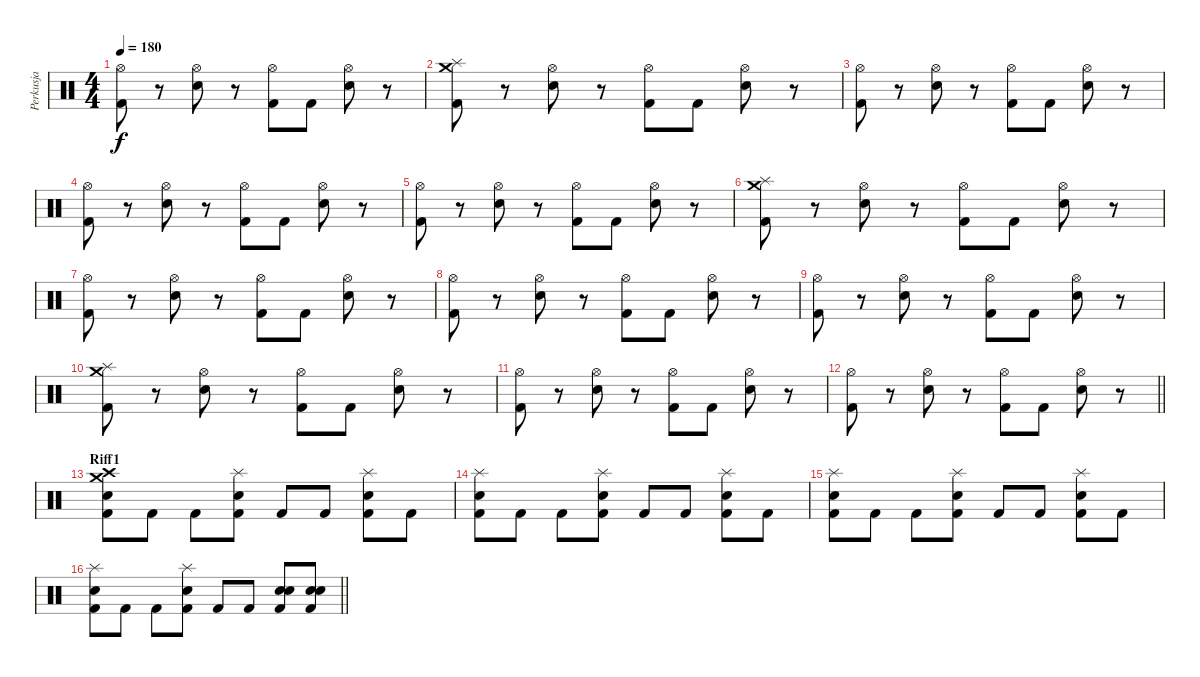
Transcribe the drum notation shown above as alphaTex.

\track ("Perkusja" "Perkusja") {instrument percussion}
\staff {score}
\articulation defaults
\ts (4 4)
\tempo 180
\clef neutral
\ks c
("Hi-Hat (open)" "Kick (hit) 2").8{dy f} r.8 ("Hi-Hat (open)" "Electric Snare (hit)").8 r.8 ("Hi-Hat (open)" "Kick (hit) 2").8 "Kick (hit) 2".8 ("Hi-Hat (open)" "Electric Snare (hit)").8 r.8 |
("Crash medium (hit)" "Splash (hit)" "Kick (hit) 2").8 r.8 ("Hi-Hat (open)" "Electric Snare (hit)").8 r.8 ("Hi-Hat (open)" "Kick (hit) 2").8 "Kick (hit) 2".8 ("Hi-Hat (open)" "Electric Snare (hit)").8 r.8 |
("Hi-Hat (open)" "Kick (hit) 2").8 r.8 ("Hi-Hat (open)" "Electric Snare (hit)").8 r.8 ("Hi-Hat (open)" "Kick (hit) 2").8 "Kick (hit) 2".8 ("Hi-Hat (open)" "Electric Snare (hit)").8 r.8 |
("Hi-Hat (open)" "Kick (hit) 2").8 r.8 ("Hi-Hat (open)" "Electric Snare (hit)").8 r.8 ("Hi-Hat (open)" "Kick (hit) 2").8 "Kick (hit) 2".8 ("Hi-Hat (open)" "Electric Snare (hit)").8 r.8 |
("Hi-Hat (open)" "Kick (hit) 2").8 r.8 ("Hi-Hat (open)" "Electric Snare (hit)").8 r.8 ("Hi-Hat (open)" "Kick (hit) 2").8 "Kick (hit) 2".8 ("Hi-Hat (open)" "Electric Snare (hit)").8 r.8 |
("Crash medium (hit)" "Splash (hit)" "Kick (hit) 2").8 r.8 ("Hi-Hat (open)" "Electric Snare (hit)").8 r.8 ("Hi-Hat (open)" "Kick (hit) 2").8 "Kick (hit) 2".8 ("Hi-Hat (open)" "Electric Snare (hit)").8 r.8 |
("Hi-Hat (open)" "Kick (hit) 2").8 r.8 ("Hi-Hat (open)" "Electric Snare (hit)").8 r.8 ("Hi-Hat (open)" "Kick (hit) 2").8 "Kick (hit) 2".8 ("Hi-Hat (open)" "Electric Snare (hit)").8 r.8 |
("Hi-Hat (open)" "Kick (hit) 2").8 r.8 ("Hi-Hat (open)" "Electric Snare (hit)").8 r.8 ("Hi-Hat (open)" "Kick (hit) 2").8 "Kick (hit) 2".8 ("Hi-Hat (open)" "Electric Snare (hit)").8 r.8 |
("Hi-Hat (open)" "Kick (hit) 2").8 r.8 ("Hi-Hat (open)" "Electric Snare (hit)").8 r.8 ("Hi-Hat (open)" "Kick (hit) 2").8 "Kick (hit) 2".8 ("Hi-Hat (open)" "Electric Snare (hit)").8 r.8 |
("Crash medium (hit)" "Splash (hit)" "Kick (hit) 2").8 r.8 ("Hi-Hat (open)" "Electric Snare (hit)").8 r.8 ("Hi-Hat (open)" "Kick (hit) 2").8 "Kick (hit) 2".8 ("Hi-Hat (open)" "Electric Snare (hit)").8 r.8 |
("Hi-Hat (open)" "Kick (hit) 2").8 r.8 ("Hi-Hat (open)" "Electric Snare (hit)").8 r.8 ("Hi-Hat (open)" "Kick (hit) 2").8 "Kick (hit) 2".8 ("Hi-Hat (open)" "Electric Snare (hit)").8 r.8 |
\barLineRight lightlight
("Hi-Hat (open)" "Kick (hit) 2").8 r.8 ("Hi-Hat (open)" "Electric Snare (hit)").8 r.8 ("Hi-Hat (open)" "Kick (hit) 2").8 "Kick (hit) 2".8 ("Hi-Hat (open)" "Electric Snare (hit)").8 r.8 |
\section ("" "Riff1")
("Crash medium (hit)" "Crash high (hit)" "Electric Snare (hit)" "Kick (hit) 2").8 "Kick (hit) 2".8 "Kick (hit) 2".8 ("Splash (hit)" "Electric Snare (hit)" "Kick (hit) 2").8 "Kick (hit) 2".8 "Kick (hit) 2".8 ("Splash (hit)" "Electric Snare (hit)" "Kick (hit) 2").8 "Kick (hit) 2".8 |
("Splash (hit)" "Electric Snare (hit)" "Kick (hit) 2").8 "Kick (hit) 2".8 "Kick (hit) 2".8 ("Splash (hit)" "Electric Snare (hit)" "Kick (hit) 2").8 "Kick (hit) 2".8 "Kick (hit) 2".8 ("Splash (hit)" "Electric Snare (hit)" "Kick (hit) 2").8 "Kick (hit) 2".8 |
("Splash (hit)" "Electric Snare (hit)" "Kick (hit) 2").8 "Kick (hit) 2".8 "Kick (hit) 2".8 ("Splash (hit)" "Electric Snare (hit)" "Kick (hit) 2").8 "Kick (hit) 2".8 "Kick (hit) 2".8 ("Splash (hit)" "Electric Snare (hit)" "Kick (hit) 2").8 "Kick (hit) 2".8 |
\barLineRight lightlight
("Splash (hit)" "Electric Snare (hit)" "Kick (hit) 2").8 "Kick (hit) 2".8 "Kick (hit) 2".8 ("Splash (hit)" "Electric Snare (hit)" "Kick (hit) 2").8 "Kick (hit) 2".8 "Kick (hit) 2".8 ("Snare (hit) 2" "Electric Snare (hit)" "Kick (hit) 2").8 ("Snare (hit) 2" "Electric Snare (hit)" "Kick (hit) 2").8
